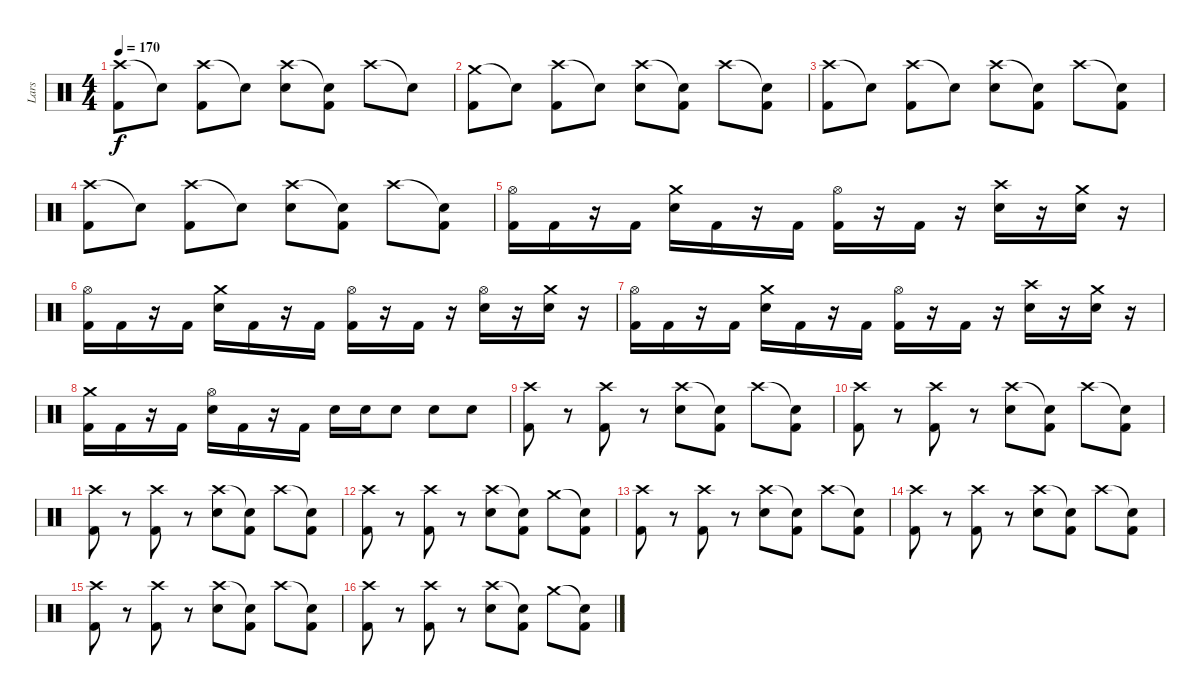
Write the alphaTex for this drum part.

\track ("Lars" "Lars") {instrument percussion}
\staff {score}
\articulation defaults
\ts (4 4)
\tempo 170
\clef neutral
\ks c
("Crash high (hit)" "Kick (hit) 2").8{dy f} "Snare (hit)"{t}.8 ("Crash high (hit)" "Kick (hit) 2").8 "Snare (hit)"{t}.8 ("Crash high (hit)" "Electric Snare (hit)").8 ("Snare (hit)"{t} "Kick (hit) 2").8 "Crash high (hit)".8 "Snare (hit)"{t}.8 |
("Crash medium (hit)" "Kick (hit) 2").8 "Snare (hit)"{t}.8 ("Crash high (hit)" "Kick (hit) 2").8 "Snare (hit)"{t}.8 ("Crash high (hit)" "Electric Snare (hit)").8 ("Snare (hit)"{t} "Kick (hit) 2").8 "Crash high (hit)".8 ("Snare (hit)"{t} "Kick (hit) 2").8 |
("Crash high (hit)" "Kick (hit) 2").8 "Snare (hit)"{t}.8 ("Crash high (hit)" "Kick (hit) 2").8 "Snare (hit)"{t}.8 ("Crash high (hit)" "Electric Snare (hit)").8 ("Snare (hit)"{t} "Kick (hit) 2").8 "Crash high (hit)".8 ("Snare (hit)"{t} "Kick (hit) 2").8 |
("Crash high (hit)" "Kick (hit) 2").8 "Snare (hit)"{t}.8 ("Crash high (hit)" "Kick (hit) 2").8 "Snare (hit)"{t}.8 ("Crash high (hit)" "Electric Snare (hit)").8 ("Snare (hit)"{t} "Kick (hit) 2").8 "Crash high (hit)".8 ("Snare (hit)"{t} "Kick (hit) 2").8 |
("Hi-Hat (open)" "Kick (hit) 2").16 "Kick (hit) 2".16 r.16 "Kick (hit) 2".16 ("Crash medium (hit)" "Electric Snare (hit)").16 "Kick (hit) 2".16 r.16 "Kick (hit) 2".16 ("Hi-Hat (open)" "Kick (hit) 2").16 r.16 "Kick (hit) 2".16 r.16 ("Crash high (hit)" "Electric Snare (hit)").16 r.16 ("Crash medium (hit)" "Electric Snare (hit)").16 r.16 |
("Hi-Hat (open)" "Kick (hit) 2").16 "Kick (hit) 2".16 r.16 "Kick (hit) 2".16 ("Crash medium (hit)" "Electric Snare (hit)").16 "Kick (hit) 2".16 r.16 "Kick (hit) 2".16 ("Hi-Hat (open)" "Kick (hit) 2").16 r.16 "Kick (hit) 2".16 r.16 ("Hi-Hat (open)" "Electric Snare (hit)").16 r.16 ("Crash medium (hit)" "Electric Snare (hit)").16 r.16 |
("Hi-Hat (open)" "Kick (hit) 2").16 "Kick (hit) 2".16 r.16 "Kick (hit) 2".16 ("Crash medium (hit)" "Electric Snare (hit)").16 "Kick (hit) 2".16 r.16 "Kick (hit) 2".16 ("Hi-Hat (open)" "Kick (hit) 2").16 r.16 "Kick (hit) 2".16 r.16 ("Crash high (hit)" "Electric Snare (hit)").16 r.16 ("Crash medium (hit)" "Electric Snare (hit)").16 r.16 |
("Crash medium (hit)" "Kick (hit) 2").16 "Kick (hit) 2".16 r.16 "Kick (hit) 2".16 ("Hi-Hat (open)" "Electric Snare (hit)").16 "Kick (hit) 2".16 r.16 "Kick (hit) 2".16 "Electric Snare (hit)".16 "Electric Snare (hit)".16 "Electric Snare (hit)".8 "Electric Snare (hit)".8 "Electric Snare (hit)".8 |
("Crash high (hit)" "Kick (hit) 2").8 r.8 ("Crash high (hit)" "Kick (hit) 2").8 r.8 ("Crash high (hit)" "Electric Snare (hit)").8 ("Snare (hit)"{t} "Kick (hit) 2").8 "Crash high (hit)".8 ("Snare (hit)"{t} "Kick (hit) 2").8 |
("Crash high (hit)" "Kick (hit) 2").8 r.8 ("Crash high (hit)" "Kick (hit) 2").8 r.8 ("Crash high (hit)" "Electric Snare (hit)").8 ("Snare (hit)"{t} "Kick (hit) 2").8 "Crash high (hit)".8 ("Snare (hit)"{t} "Kick (hit) 2").8 |
("Crash high (hit)" "Kick (hit) 2").8 r.8 ("Crash high (hit)" "Kick (hit) 2").8 r.8 ("Crash high (hit)" "Electric Snare (hit)").8 ("Snare (hit)"{t} "Kick (hit) 2").8 "Crash high (hit)".8 ("Snare (hit)"{t} "Kick (hit) 2").8 |
("Crash high (hit)" "Kick (hit) 2").8 r.8 ("Crash high (hit)" "Kick (hit) 2").8 r.8 ("Crash high (hit)" "Electric Snare (hit)").8 ("Snare (hit)"{t} "Kick (hit) 2").8 "Crash medium (hit)".8 ("Snare (hit)"{t} "Kick (hit) 2").8 |
("Crash high (hit)" "Kick (hit) 2").8 r.8 ("Crash high (hit)" "Kick (hit) 2").8 r.8 ("Crash high (hit)" "Electric Snare (hit)").8 ("Snare (hit)"{t} "Kick (hit) 2").8 "Crash high (hit)".8 ("Snare (hit)"{t} "Kick (hit) 2").8 |
("Crash high (hit)" "Kick (hit) 2").8 r.8 ("Crash high (hit)" "Kick (hit) 2").8 r.8 ("Crash high (hit)" "Electric Snare (hit)").8 ("Snare (hit)"{t} "Kick (hit) 2").8 "Crash high (hit)".8 ("Snare (hit)"{t} "Kick (hit) 2").8 |
("Crash high (hit)" "Kick (hit) 2").8 r.8 ("Crash high (hit)" "Kick (hit) 2").8 r.8 ("Crash high (hit)" "Electric Snare (hit)").8 ("Snare (hit)"{t} "Kick (hit) 2").8 "Crash high (hit)".8 ("Snare (hit)"{t} "Kick (hit) 2").8 |
("Crash high (hit)" "Kick (hit) 2").8 r.8 ("Crash high (hit)" "Kick (hit) 2").8 r.8 ("Crash high (hit)" "Electric Snare (hit)").8 ("Snare (hit)"{t} "Kick (hit) 2").8 "Crash medium (hit)".8 ("Snare (hit)"{t} "Kick (hit) 2").8
